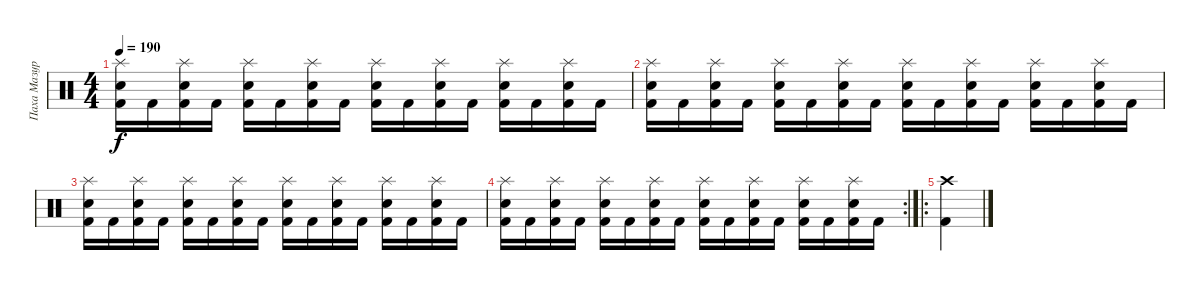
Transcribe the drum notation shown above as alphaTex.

\track ("Паха Мазуркевич" "Паха Мазур") {instrument percussion}
\staff {score}
\articulation defaults
\ts (4 4)
\tempo 190
\clef neutral
\ks c
("Splash (hit)" "Snare (hit) 2" "Kick (hit) 2").16{dy f} "Kick (hit) 2".16 ("Splash (hit)" "Snare (hit) 2" "Kick (hit) 2").16 "Kick (hit) 2".16 ("Splash (hit)" "Snare (hit) 2" "Kick (hit) 2").16 "Kick (hit) 2".16 ("Splash (hit)" "Snare (hit) 2" "Kick (hit) 2").16 "Kick (hit) 2".16 ("Splash (hit)" "Snare (hit) 2" "Kick (hit) 2").16 "Kick (hit) 2".16 ("Splash (hit)" "Snare (hit) 2" "Kick (hit) 2").16 "Kick (hit) 2".16 ("Splash (hit)" "Snare (hit) 2" "Kick (hit) 2").16 "Kick (hit) 2".16 ("Splash (hit)" "Snare (hit) 2" "Kick (hit) 2").16 "Kick (hit) 2".16 |
("Splash (hit)" "Snare (hit) 2" "Kick (hit) 2").16 "Kick (hit) 2".16 ("Splash (hit)" "Snare (hit) 2" "Kick (hit) 2").16 "Kick (hit) 2".16 ("Splash (hit)" "Snare (hit) 2" "Kick (hit) 2").16 "Kick (hit) 2".16 ("Splash (hit)" "Snare (hit) 2" "Kick (hit) 2").16 "Kick (hit) 2".16 ("Splash (hit)" "Snare (hit) 2" "Kick (hit) 2").16 "Kick (hit) 2".16 ("Splash (hit)" "Snare (hit) 2" "Kick (hit) 2").16 "Kick (hit) 2".16 ("Splash (hit)" "Snare (hit) 2" "Kick (hit) 2").16 "Kick (hit) 2".16 ("Splash (hit)" "Snare (hit) 2" "Kick (hit) 2").16 "Kick (hit) 2".16 |
("Splash (hit)" "Snare (hit) 2" "Kick (hit) 2").16 "Kick (hit) 2".16 ("Splash (hit)" "Snare (hit) 2" "Kick (hit) 2").16 "Kick (hit) 2".16 ("Splash (hit)" "Snare (hit) 2" "Kick (hit) 2").16 "Kick (hit) 2".16 ("Splash (hit)" "Snare (hit) 2" "Kick (hit) 2").16 "Kick (hit) 2".16 ("Splash (hit)" "Snare (hit) 2" "Kick (hit) 2").16 "Kick (hit) 2".16 ("Splash (hit)" "Snare (hit) 2" "Kick (hit) 2").16 "Kick (hit) 2".16 ("Splash (hit)" "Snare (hit) 2" "Kick (hit) 2").16 "Kick (hit) 2".16 ("Splash (hit)" "Snare (hit) 2" "Kick (hit) 2").16 "Kick (hit) 2".16 |
\rc 2
("Splash (hit)" "Snare (hit) 2" "Kick (hit) 2").16 "Kick (hit) 2".16 ("Splash (hit)" "Snare (hit) 2" "Kick (hit) 2").16 "Kick (hit) 2".16 ("Splash (hit)" "Snare (hit) 2" "Kick (hit) 2").16 "Kick (hit) 2".16 ("Splash (hit)" "Snare (hit) 2" "Kick (hit) 2").16 "Kick (hit) 2".16 ("Splash (hit)" "Snare (hit) 2" "Kick (hit) 2").16 "Kick (hit) 2".16 ("Splash (hit)" "Snare (hit) 2" "Kick (hit) 2").16 "Kick (hit) 2".16 ("Splash (hit)" "Snare (hit) 2" "Kick (hit) 2").16 "Kick (hit) 2".16 ("Splash (hit)" "Snare (hit) 2" "Kick (hit) 2").16 "Kick (hit) 2".16 |
\ro
("Crash high (hit)" "Kick (hit) 2").4
